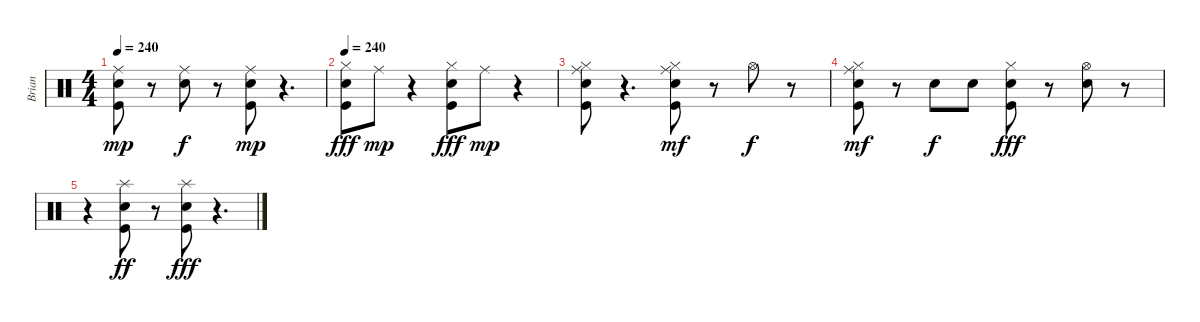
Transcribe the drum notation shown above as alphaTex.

\track ("Brian" "Brian") {instrument percussion}
\staff {score}
\articulation defaults
\ts (4 4)
\tempo 240
\clef neutral
\ks c
("Ride (middle)" "Snare (hit) 2" "Kick (hit)").8{dy mp} r.8 ("Ride (middle)" "Snare (hit) 2").8{dy f} r.8 ("Ride (middle)" "Snare (hit) 2" "Kick (hit)").8{dy mp} r.4{d} |
\tempo 240
("Hi-Hat (closed)" "Snare (hit) 2" "Kick (hit)").8{dy fff} "Ride (middle)".8{dy mp} r.4 ("Hi-Hat (closed)" "Snare (hit) 2" "Kick (hit)").8{dy fff} "Ride (middle)".8{dy mp} r.4 |
("Ride (middle)" "Hi-Hat (closed)" "Snare (hit) 2" "Kick (hit)").8 r.4{d} ("Ride (middle)" "Hi-Hat (closed)" "Snare (hit) 2" "Kick (hit)").8{dy mf} r.8 "Hi-Hat (open)".8{dy f} r.8 |
("Ride (middle)" "Hi-Hat (closed)" "Snare (hit) 2" "Kick (hit)").8{dy mf} r.8 "Snare (hit) 2".8{dy f} "Snare (hit) 2".8 ("Hi-Hat (closed)" "Snare (hit) 2" "Kick (hit)").8{dy fff} r.8 ("Hi-Hat (open)" "Snare (hit) 2").8 r.8 |
r.4 ("Splash (hit)" "Snare (hit) 2" "Kick (hit)").8{dy ff} r.8 ("Splash (hit)" "Snare (hit) 2" "Kick (hit)").8{dy fff} r.4{d}
